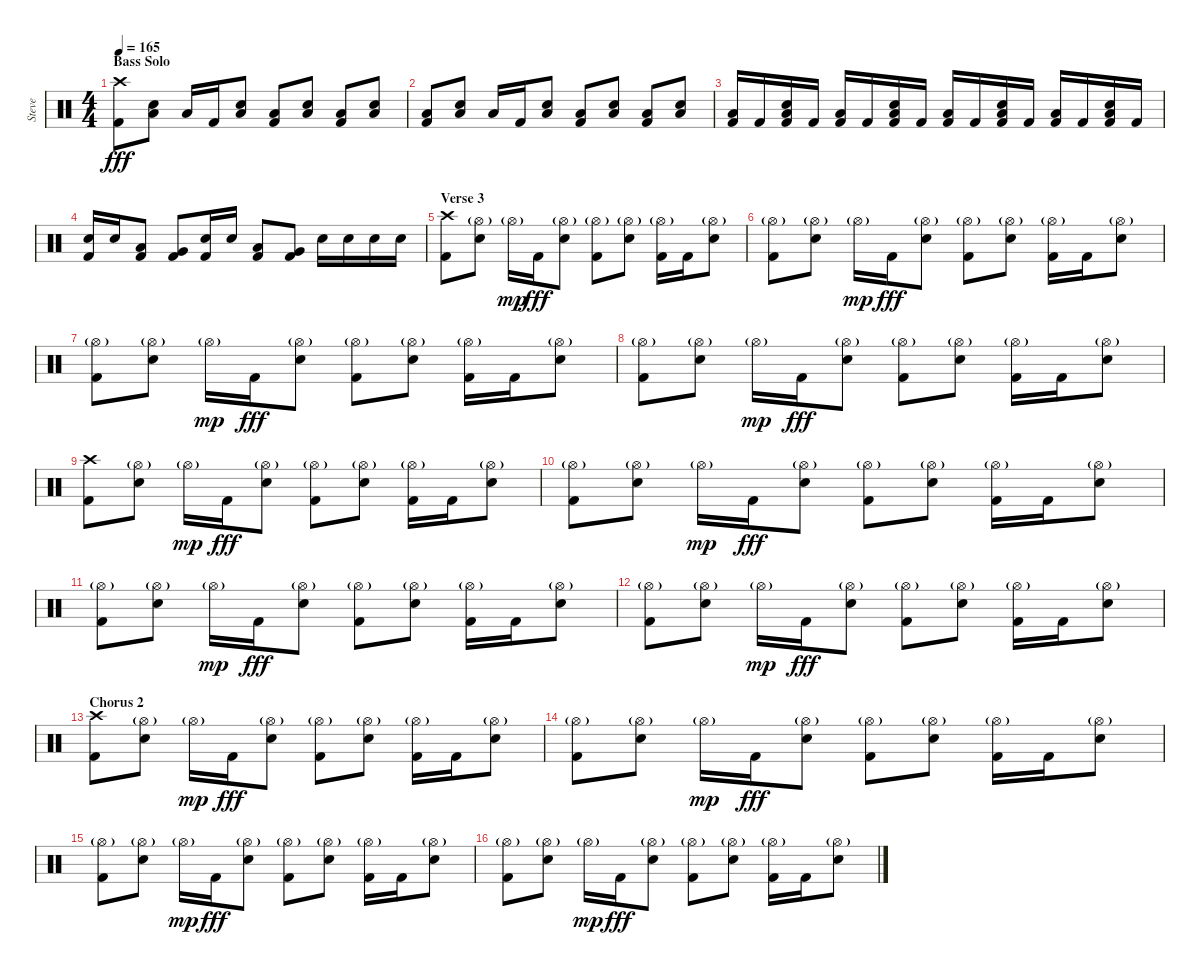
\track ("Steve" "Steve") {instrument percussion}
\staff {score}
\articulation defaults
\ts (4 4)
\section ("" "Bass Solo")
\tempo 165
\clef neutral
\ks c
("Crash high (hit)" "Kick (hit) 2").8{dy fff} ("Low Floor Tom (hit)" "Electric Snare (hit)").8 "Low Floor Tom (hit)".16 "Kick (hit) 2".16 ("Low Floor Tom (hit)" "Electric Snare (hit)").8 ("Low Floor Tom (hit)" "Kick (hit) 2").8 ("Low Floor Tom (hit)" "Electric Snare (hit)").8 ("Low Floor Tom (hit)" "Kick (hit) 2").8 ("Low Floor Tom (hit)" "Electric Snare (hit)").8 |
("Low Floor Tom (hit)" "Kick (hit) 2").8 ("Low Floor Tom (hit)" "Electric Snare (hit)").8 "Low Floor Tom (hit)".16 "Kick (hit) 2".16 ("Low Floor Tom (hit)" "Electric Snare (hit)").8 ("Low Floor Tom (hit)" "Kick (hit) 2").8 ("Low Floor Tom (hit)" "Electric Snare (hit)").8 ("Low Floor Tom (hit)" "Kick (hit) 2").8 ("Low Floor Tom (hit)" "Electric Snare (hit)").8 |
("Low Floor Tom (hit)" "Kick (hit) 2").16 "Kick (hit) 2".16 ("Low Floor Tom (hit)" "Electric Snare (hit)" "Kick (hit) 2").16 "Kick (hit) 2".16 ("Low Floor Tom (hit)" "Kick (hit) 2").16 "Kick (hit) 2".16 ("Low Floor Tom (hit)" "Electric Snare (hit)" "Kick (hit) 2").16 "Kick (hit) 2".16 ("Low Floor Tom (hit)" "Kick (hit) 2").16 "Kick (hit) 2".16 ("Low Floor Tom (hit)" "Electric Snare (hit)" "Kick (hit) 2").16 "Kick (hit) 2".16 ("Low Floor Tom (hit)" "Kick (hit) 2").16 "Kick (hit) 2".16 ("Low Floor Tom (hit)" "Electric Snare (hit)" "Kick (hit) 2").16 "Kick (hit) 2".16 |
("Electric Snare (hit)" "Kick (hit) 2").16 "Electric Snare (hit)".16 ("Low Tom (hit)" "Kick (hit) 2").8 ("Very Low Tom (hit)" "Kick (hit) 2").8 ("Electric Snare (hit)" "Kick (hit) 2").16 "Electric Snare (hit)".16 ("Low Tom (hit)" "Kick (hit) 2").8 ("Very Low Tom (hit)" "Kick (hit) 2").8 "Electric Snare (hit)".16 "Electric Snare (hit)".16 "Electric Snare (hit)".16 "Electric Snare (hit)".16 |
\section ("" "Verse 3")
("Crash high (hit)" "Kick (hit) 2").8 ("Hi-Hat (open)"{g} "Electric Snare (hit)").8 "Hi-Hat (open)"{g}.16{dy mp} "Kick (hit) 2".16{dy fff} ("Hi-Hat (open)"{g} "Electric Snare (hit)").8 ("Hi-Hat (open)"{g} "Kick (hit) 2").8 ("Hi-Hat (open)"{g} "Electric Snare (hit)").8 ("Hi-Hat (open)"{g} "Kick (hit) 2").16 "Kick (hit) 2".16 ("Hi-Hat (open)"{g} "Electric Snare (hit)").8 |
("Hi-Hat (open)"{g} "Kick (hit) 2").8 ("Hi-Hat (open)"{g} "Electric Snare (hit)").8 "Hi-Hat (open)"{g}.16{dy mp} "Kick (hit) 2".16{dy fff} ("Hi-Hat (open)"{g} "Electric Snare (hit)").8 ("Hi-Hat (open)"{g} "Kick (hit) 2").8 ("Hi-Hat (open)"{g} "Electric Snare (hit)").8 ("Hi-Hat (open)"{g} "Kick (hit) 2").16 "Kick (hit) 2".16 ("Hi-Hat (open)"{g} "Electric Snare (hit)").8 |
("Hi-Hat (open)"{g} "Kick (hit) 2").8 ("Hi-Hat (open)"{g} "Electric Snare (hit)").8 "Hi-Hat (open)"{g}.16{dy mp} "Kick (hit) 2".16{dy fff} ("Hi-Hat (open)"{g} "Electric Snare (hit)").8 ("Hi-Hat (open)"{g} "Kick (hit) 2").8 ("Hi-Hat (open)"{g} "Electric Snare (hit)").8 ("Hi-Hat (open)"{g} "Kick (hit) 2").16 "Kick (hit) 2".16 ("Hi-Hat (open)"{g} "Electric Snare (hit)").8 |
("Hi-Hat (open)"{g} "Kick (hit) 2").8 ("Hi-Hat (open)"{g} "Electric Snare (hit)").8 "Hi-Hat (open)"{g}.16{dy mp} "Kick (hit) 2".16{dy fff} ("Hi-Hat (open)"{g} "Electric Snare (hit)").8 ("Hi-Hat (open)"{g} "Kick (hit) 2").8 ("Hi-Hat (open)"{g} "Electric Snare (hit)").8 ("Hi-Hat (open)"{g} "Kick (hit) 2").16 "Kick (hit) 2".16 ("Hi-Hat (open)"{g} "Electric Snare (hit)").8 |
("Crash high (hit)" "Kick (hit) 2").8 ("Hi-Hat (open)"{g} "Electric Snare (hit)").8 "Hi-Hat (open)"{g}.16{dy mp} "Kick (hit) 2".16{dy fff} ("Hi-Hat (open)"{g} "Electric Snare (hit)").8 ("Hi-Hat (open)"{g} "Kick (hit) 2").8 ("Hi-Hat (open)"{g} "Electric Snare (hit)").8 ("Hi-Hat (open)"{g} "Kick (hit) 2").16 "Kick (hit) 2".16 ("Hi-Hat (open)"{g} "Electric Snare (hit)").8 |
("Hi-Hat (open)"{g} "Kick (hit) 2").8 ("Hi-Hat (open)"{g} "Electric Snare (hit)").8 "Hi-Hat (open)"{g}.16{dy mp} "Kick (hit) 2".16{dy fff} ("Hi-Hat (open)"{g} "Electric Snare (hit)").8 ("Hi-Hat (open)"{g} "Kick (hit) 2").8 ("Hi-Hat (open)"{g} "Electric Snare (hit)").8 ("Hi-Hat (open)"{g} "Kick (hit) 2").16 "Kick (hit) 2".16 ("Hi-Hat (open)"{g} "Electric Snare (hit)").8 |
("Hi-Hat (open)"{g} "Kick (hit) 2").8 ("Hi-Hat (open)"{g} "Electric Snare (hit)").8 "Hi-Hat (open)"{g}.16{dy mp} "Kick (hit) 2".16{dy fff} ("Hi-Hat (open)"{g} "Electric Snare (hit)").8 ("Hi-Hat (open)"{g} "Kick (hit) 2").8 ("Hi-Hat (open)"{g} "Electric Snare (hit)").8 ("Hi-Hat (open)"{g} "Kick (hit) 2").16 "Kick (hit) 2".16 ("Hi-Hat (open)"{g} "Electric Snare (hit)").8 |
("Hi-Hat (open)"{g} "Kick (hit) 2").8 ("Hi-Hat (open)"{g} "Electric Snare (hit)").8 "Hi-Hat (open)"{g}.16{dy mp} "Kick (hit) 2".16{dy fff} ("Hi-Hat (open)"{g} "Electric Snare (hit)").8 ("Hi-Hat (open)"{g} "Kick (hit) 2").8 ("Hi-Hat (open)"{g} "Electric Snare (hit)").8 ("Hi-Hat (open)"{g} "Kick (hit) 2").16 "Kick (hit) 2".16 ("Hi-Hat (open)"{g} "Electric Snare (hit)").8 |
\section ("" "Chorus 2")
("Crash high (hit)" "Kick (hit) 2").8 ("Hi-Hat (open)"{g} "Electric Snare (hit)").8 "Hi-Hat (open)"{g}.16{dy mp} "Kick (hit) 2".16{dy fff} ("Hi-Hat (open)"{g} "Electric Snare (hit)").8 ("Hi-Hat (open)"{g} "Kick (hit) 2").8 ("Hi-Hat (open)"{g} "Electric Snare (hit)").8 ("Hi-Hat (open)"{g} "Kick (hit) 2").16 "Kick (hit) 2".16 ("Hi-Hat (open)"{g} "Electric Snare (hit)").8 |
("Hi-Hat (open)"{g} "Kick (hit) 2").8 ("Hi-Hat (open)"{g} "Electric Snare (hit)").8 "Hi-Hat (open)"{g}.16{dy mp} "Kick (hit) 2".16{dy fff} ("Hi-Hat (open)"{g} "Electric Snare (hit)").8 ("Hi-Hat (open)"{g} "Kick (hit) 2").8 ("Hi-Hat (open)"{g} "Electric Snare (hit)").8 ("Hi-Hat (open)"{g} "Kick (hit) 2").16 "Kick (hit) 2".16 ("Hi-Hat (open)"{g} "Electric Snare (hit)").8 |
("Hi-Hat (open)"{g} "Kick (hit) 2").8 ("Hi-Hat (open)"{g} "Electric Snare (hit)").8 "Hi-Hat (open)"{g}.16{dy mp} "Kick (hit) 2".16{dy fff} ("Hi-Hat (open)"{g} "Electric Snare (hit)").8 ("Hi-Hat (open)"{g} "Kick (hit) 2").8 ("Hi-Hat (open)"{g} "Electric Snare (hit)").8 ("Hi-Hat (open)"{g} "Kick (hit) 2").16 "Kick (hit) 2".16 ("Hi-Hat (open)"{g} "Electric Snare (hit)").8 |
("Hi-Hat (open)"{g} "Kick (hit) 2").8 ("Hi-Hat (open)"{g} "Electric Snare (hit)").8 "Hi-Hat (open)"{g}.16{dy mp} "Kick (hit) 2".16{dy fff} ("Hi-Hat (open)"{g} "Electric Snare (hit)").8 ("Hi-Hat (open)"{g} "Kick (hit) 2").8 ("Hi-Hat (open)"{g} "Electric Snare (hit)").8 ("Hi-Hat (open)"{g} "Kick (hit) 2").16 "Kick (hit) 2".16 ("Hi-Hat (open)"{g} "Electric Snare (hit)").8
